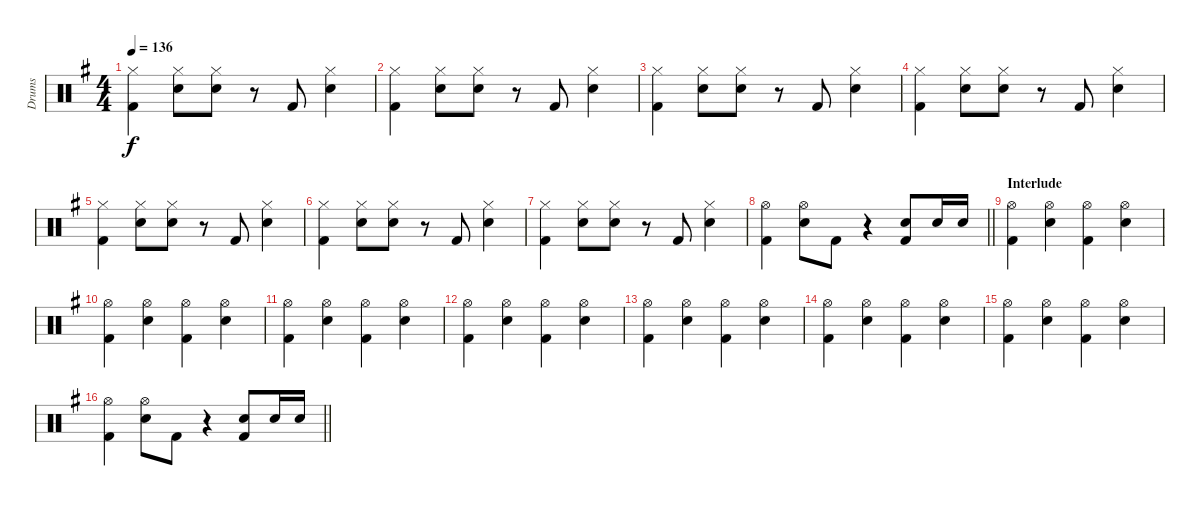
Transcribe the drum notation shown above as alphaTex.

\track ("Drums" "Drums") {instrument percussion}
\staff {score}
\articulation defaults
\ts (4 4)
\tempo 136
\clef neutral
\ks g
("Kick (hit) 2" "Hi-Hat (closed)").4{dy f} ("Snare (hit) 2" "Hi-Hat (closed)").8 ("Snare (hit) 2" "Hi-Hat (closed)").8 r.8 "Kick (hit) 2".8 ("Snare (hit) 2" "Hi-Hat (closed)").4 |
("Kick (hit) 2" "Hi-Hat (closed)").4 ("Snare (hit) 2" "Hi-Hat (closed)").8 ("Snare (hit) 2" "Hi-Hat (closed)").8 r.8 "Kick (hit) 2".8 ("Snare (hit) 2" "Hi-Hat (closed)").4 |
("Kick (hit) 2" "Hi-Hat (closed)").4 ("Snare (hit) 2" "Hi-Hat (closed)").8 ("Snare (hit) 2" "Hi-Hat (closed)").8 r.8 "Kick (hit) 2".8 ("Snare (hit) 2" "Hi-Hat (closed)").4 |
("Kick (hit) 2" "Hi-Hat (closed)").4 ("Snare (hit) 2" "Hi-Hat (closed)").8 ("Snare (hit) 2" "Hi-Hat (closed)").8 r.8 "Kick (hit) 2".8 ("Snare (hit) 2" "Hi-Hat (closed)").4 |
("Kick (hit) 2" "Hi-Hat (closed)").4 ("Snare (hit) 2" "Hi-Hat (closed)").8 ("Snare (hit) 2" "Hi-Hat (closed)").8 r.8 "Kick (hit) 2".8 ("Snare (hit) 2" "Hi-Hat (closed)").4 |
("Kick (hit) 2" "Hi-Hat (closed)").4 ("Snare (hit) 2" "Hi-Hat (closed)").8 ("Snare (hit) 2" "Hi-Hat (closed)").8 r.8 "Kick (hit) 2".8 ("Snare (hit) 2" "Hi-Hat (closed)").4 |
("Kick (hit) 2" "Hi-Hat (closed)").4 ("Snare (hit) 2" "Hi-Hat (closed)").8 ("Snare (hit) 2" "Hi-Hat (closed)").8 r.8 "Kick (hit) 2".8 ("Snare (hit) 2" "Hi-Hat (closed)").4 |
\barLineRight lightlight
("Hi-Hat (open)" "Kick (hit) 2").4 ("Snare (hit) 2" "Hi-Hat (open)").8 "Kick (hit) 2".8 r.4 ("Snare (hit) 2" "Kick (hit) 2").8 "Snare (hit) 2".16 "Snare (hit) 2".16 |
\section ("" "Interlude")
("Hi-Hat (open)" "Kick (hit) 2").4 ("Hi-Hat (open)" "Snare (hit) 2").4 ("Hi-Hat (open)" "Kick (hit) 2").4 ("Hi-Hat (open)" "Snare (hit) 2").4 |
("Hi-Hat (open)" "Kick (hit) 2").4 ("Hi-Hat (open)" "Snare (hit) 2").4 ("Hi-Hat (open)" "Kick (hit) 2").4 ("Hi-Hat (open)" "Snare (hit) 2").4 |
("Hi-Hat (open)" "Kick (hit) 2").4 ("Hi-Hat (open)" "Snare (hit) 2").4 ("Hi-Hat (open)" "Kick (hit) 2").4 ("Hi-Hat (open)" "Snare (hit) 2").4 |
("Hi-Hat (open)" "Kick (hit) 2").4 ("Hi-Hat (open)" "Snare (hit) 2").4 ("Hi-Hat (open)" "Kick (hit) 2").4 ("Hi-Hat (open)" "Snare (hit) 2").4 |
("Hi-Hat (open)" "Kick (hit) 2").4 ("Hi-Hat (open)" "Snare (hit) 2").4 ("Hi-Hat (open)" "Kick (hit) 2").4 ("Hi-Hat (open)" "Snare (hit) 2").4 |
("Hi-Hat (open)" "Kick (hit) 2").4 ("Hi-Hat (open)" "Snare (hit) 2").4 ("Hi-Hat (open)" "Kick (hit) 2").4 ("Hi-Hat (open)" "Snare (hit) 2").4 |
("Hi-Hat (open)" "Kick (hit) 2").4 ("Hi-Hat (open)" "Snare (hit) 2").4 ("Hi-Hat (open)" "Kick (hit) 2").4 ("Hi-Hat (open)" "Snare (hit) 2").4 |
\barLineRight lightlight
("Hi-Hat (open)" "Kick (hit) 2").4 ("Snare (hit) 2" "Hi-Hat (open)").8 "Kick (hit) 2".8 r.4 ("Snare (hit) 2" "Kick (hit) 2").8 "Snare (hit) 2".16 "Snare (hit) 2".16
